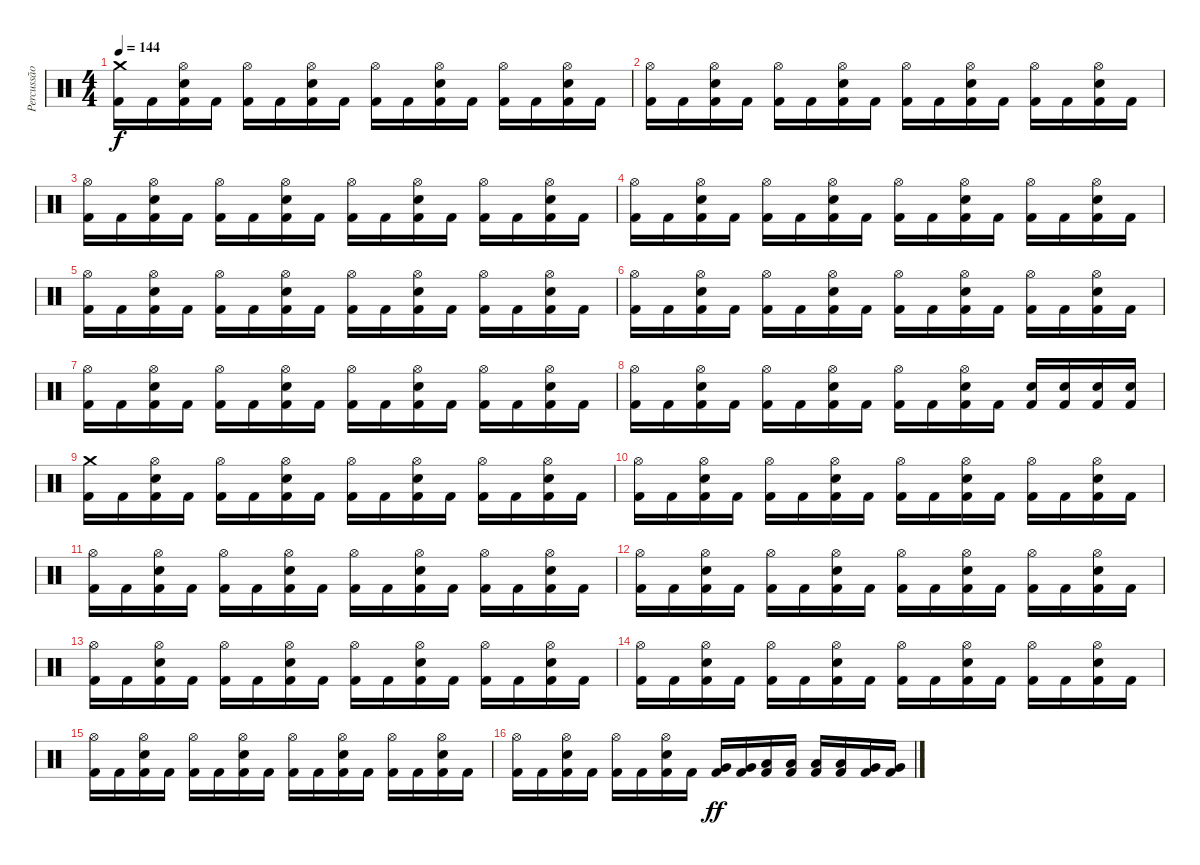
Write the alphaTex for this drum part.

\track ("Percussão" "Percussão") {instrument percussion}
\staff {score}
\articulation defaults
\ts (4 4)
\tempo 144
\clef neutral
\ks c
("Crash medium (hit)" "Kick (hit) 2").16{dy f} "Kick (hit) 2".16 ("Hi-Hat (open)" "Electric Snare (hit)" "Kick (hit) 2").16 "Kick (hit) 2".16 ("Hi-Hat (open)" "Kick (hit) 2").16 "Kick (hit) 2".16 ("Hi-Hat (open)" "Electric Snare (hit)" "Kick (hit) 2").16 "Kick (hit) 2".16 ("Hi-Hat (open)" "Kick (hit) 2").16 "Kick (hit) 2".16 ("Hi-Hat (open)" "Electric Snare (hit)" "Kick (hit) 2").16 "Kick (hit) 2".16 ("Hi-Hat (open)" "Kick (hit) 2").16 "Kick (hit) 2".16 ("Hi-Hat (open)" "Electric Snare (hit)" "Kick (hit) 2").16 "Kick (hit) 2".16 |
("Hi-Hat (open)" "Kick (hit) 2").16 "Kick (hit) 2".16 ("Hi-Hat (open)" "Electric Snare (hit)" "Kick (hit) 2").16 "Kick (hit) 2".16 ("Hi-Hat (open)" "Kick (hit) 2").16 "Kick (hit) 2".16 ("Hi-Hat (open)" "Electric Snare (hit)" "Kick (hit) 2").16 "Kick (hit) 2".16 ("Hi-Hat (open)" "Kick (hit) 2").16 "Kick (hit) 2".16 ("Hi-Hat (open)" "Electric Snare (hit)" "Kick (hit) 2").16 "Kick (hit) 2".16 ("Hi-Hat (open)" "Kick (hit) 2").16 "Kick (hit) 2".16 ("Hi-Hat (open)" "Electric Snare (hit)" "Kick (hit) 2").16 "Kick (hit) 2".16 |
("Hi-Hat (open)" "Kick (hit) 2").16 "Kick (hit) 2".16 ("Hi-Hat (open)" "Electric Snare (hit)" "Kick (hit) 2").16 "Kick (hit) 2".16 ("Hi-Hat (open)" "Kick (hit) 2").16 "Kick (hit) 2".16 ("Hi-Hat (open)" "Electric Snare (hit)" "Kick (hit) 2").16 "Kick (hit) 2".16 ("Hi-Hat (open)" "Kick (hit) 2").16 "Kick (hit) 2".16 ("Hi-Hat (open)" "Electric Snare (hit)" "Kick (hit) 2").16 "Kick (hit) 2".16 ("Hi-Hat (open)" "Kick (hit) 2").16 "Kick (hit) 2".16 ("Hi-Hat (open)" "Electric Snare (hit)" "Kick (hit) 2").16 "Kick (hit) 2".16 |
("Hi-Hat (open)" "Kick (hit) 2").16 "Kick (hit) 2".16 ("Hi-Hat (open)" "Electric Snare (hit)" "Kick (hit) 2").16 "Kick (hit) 2".16 ("Hi-Hat (open)" "Kick (hit) 2").16 "Kick (hit) 2".16 ("Hi-Hat (open)" "Electric Snare (hit)" "Kick (hit) 2").16 "Kick (hit) 2".16 ("Hi-Hat (open)" "Kick (hit) 2").16 "Kick (hit) 2".16 ("Hi-Hat (open)" "Electric Snare (hit)" "Kick (hit) 2").16 "Kick (hit) 2".16 ("Hi-Hat (open)" "Kick (hit) 2").16 "Kick (hit) 2".16 ("Hi-Hat (open)" "Electric Snare (hit)" "Kick (hit) 2").16 "Kick (hit) 2".16 |
("Hi-Hat (open)" "Kick (hit) 2").16 "Kick (hit) 2".16 ("Hi-Hat (open)" "Electric Snare (hit)" "Kick (hit) 2").16 "Kick (hit) 2".16 ("Hi-Hat (open)" "Kick (hit) 2").16 "Kick (hit) 2".16 ("Hi-Hat (open)" "Electric Snare (hit)" "Kick (hit) 2").16 "Kick (hit) 2".16 ("Hi-Hat (open)" "Kick (hit) 2").16 "Kick (hit) 2".16 ("Hi-Hat (open)" "Electric Snare (hit)" "Kick (hit) 2").16 "Kick (hit) 2".16 ("Hi-Hat (open)" "Kick (hit) 2").16 "Kick (hit) 2".16 ("Hi-Hat (open)" "Electric Snare (hit)" "Kick (hit) 2").16 "Kick (hit) 2".16 |
("Hi-Hat (open)" "Kick (hit) 2").16 "Kick (hit) 2".16 ("Hi-Hat (open)" "Electric Snare (hit)" "Kick (hit) 2").16 "Kick (hit) 2".16 ("Hi-Hat (open)" "Kick (hit) 2").16 "Kick (hit) 2".16 ("Hi-Hat (open)" "Electric Snare (hit)" "Kick (hit) 2").16 "Kick (hit) 2".16 ("Hi-Hat (open)" "Kick (hit) 2").16 "Kick (hit) 2".16 ("Hi-Hat (open)" "Electric Snare (hit)" "Kick (hit) 2").16 "Kick (hit) 2".16 ("Hi-Hat (open)" "Kick (hit) 2").16 "Kick (hit) 2".16 ("Hi-Hat (open)" "Electric Snare (hit)" "Kick (hit) 2").16 "Kick (hit) 2".16 |
("Hi-Hat (open)" "Kick (hit) 2").16 "Kick (hit) 2".16 ("Hi-Hat (open)" "Electric Snare (hit)" "Kick (hit) 2").16 "Kick (hit) 2".16 ("Hi-Hat (open)" "Kick (hit) 2").16 "Kick (hit) 2".16 ("Hi-Hat (open)" "Electric Snare (hit)" "Kick (hit) 2").16 "Kick (hit) 2".16 ("Hi-Hat (open)" "Kick (hit) 2").16 "Kick (hit) 2".16 ("Hi-Hat (open)" "Electric Snare (hit)" "Kick (hit) 2").16 "Kick (hit) 2".16 ("Hi-Hat (open)" "Kick (hit) 2").16 "Kick (hit) 2".16 ("Hi-Hat (open)" "Electric Snare (hit)" "Kick (hit) 2").16 "Kick (hit) 2".16 |
("Hi-Hat (open)" "Kick (hit) 2").16 "Kick (hit) 2".16 ("Hi-Hat (open)" "Electric Snare (hit)" "Kick (hit) 2").16 "Kick (hit) 2".16 ("Hi-Hat (open)" "Kick (hit) 2").16 "Kick (hit) 2".16 ("Hi-Hat (open)" "Electric Snare (hit)" "Kick (hit) 2").16 "Kick (hit) 2".16 ("Hi-Hat (open)" "Kick (hit) 2").16 "Kick (hit) 2".16 ("Hi-Hat (open)" "Electric Snare (hit)" "Kick (hit) 2").16 "Kick (hit) 2".16 ("Electric Snare (hit)" "Kick (hit) 2").16 ("Electric Snare (hit)" "Kick (hit) 2").16 ("Electric Snare (hit)" "Kick (hit) 2").16 ("Electric Snare (hit)" "Kick (hit) 2").16 |
("Crash medium (hit)" "Kick (hit) 2").16 "Kick (hit) 2".16 ("Hi-Hat (open)" "Electric Snare (hit)" "Kick (hit) 2").16 "Kick (hit) 2".16 ("Hi-Hat (open)" "Kick (hit) 2").16 "Kick (hit) 2".16 ("Hi-Hat (open)" "Electric Snare (hit)" "Kick (hit) 2").16 "Kick (hit) 2".16 ("Hi-Hat (open)" "Kick (hit) 2").16 "Kick (hit) 2".16 ("Hi-Hat (open)" "Electric Snare (hit)" "Kick (hit) 2").16 "Kick (hit) 2".16 ("Hi-Hat (open)" "Kick (hit) 2").16 "Kick (hit) 2".16 ("Hi-Hat (open)" "Electric Snare (hit)" "Kick (hit) 2").16 "Kick (hit) 2".16 |
("Hi-Hat (open)" "Kick (hit) 2").16 "Kick (hit) 2".16 ("Hi-Hat (open)" "Electric Snare (hit)" "Kick (hit) 2").16 "Kick (hit) 2".16 ("Hi-Hat (open)" "Kick (hit) 2").16 "Kick (hit) 2".16 ("Hi-Hat (open)" "Electric Snare (hit)" "Kick (hit) 2").16 "Kick (hit) 2".16 ("Hi-Hat (open)" "Kick (hit) 2").16 "Kick (hit) 2".16 ("Hi-Hat (open)" "Electric Snare (hit)" "Kick (hit) 2").16 "Kick (hit) 2".16 ("Hi-Hat (open)" "Kick (hit) 2").16 "Kick (hit) 2".16 ("Hi-Hat (open)" "Electric Snare (hit)" "Kick (hit) 2").16 "Kick (hit) 2".16 |
("Hi-Hat (open)" "Kick (hit) 2").16 "Kick (hit) 2".16 ("Hi-Hat (open)" "Electric Snare (hit)" "Kick (hit) 2").16 "Kick (hit) 2".16 ("Hi-Hat (open)" "Kick (hit) 2").16 "Kick (hit) 2".16 ("Hi-Hat (open)" "Electric Snare (hit)" "Kick (hit) 2").16 "Kick (hit) 2".16 ("Hi-Hat (open)" "Kick (hit) 2").16 "Kick (hit) 2".16 ("Hi-Hat (open)" "Electric Snare (hit)" "Kick (hit) 2").16 "Kick (hit) 2".16 ("Hi-Hat (open)" "Kick (hit) 2").16 "Kick (hit) 2".16 ("Hi-Hat (open)" "Electric Snare (hit)" "Kick (hit) 2").16 "Kick (hit) 2".16 |
("Hi-Hat (open)" "Kick (hit) 2").16 "Kick (hit) 2".16 ("Hi-Hat (open)" "Electric Snare (hit)" "Kick (hit) 2").16 "Kick (hit) 2".16 ("Hi-Hat (open)" "Kick (hit) 2").16 "Kick (hit) 2".16 ("Hi-Hat (open)" "Electric Snare (hit)" "Kick (hit) 2").16 "Kick (hit) 2".16 ("Hi-Hat (open)" "Kick (hit) 2").16 "Kick (hit) 2".16 ("Hi-Hat (open)" "Electric Snare (hit)" "Kick (hit) 2").16 "Kick (hit) 2".16 ("Hi-Hat (open)" "Kick (hit) 2").16 "Kick (hit) 2".16 ("Hi-Hat (open)" "Electric Snare (hit)" "Kick (hit) 2").16 "Kick (hit) 2".16 |
("Hi-Hat (open)" "Kick (hit) 2").16 "Kick (hit) 2".16 ("Hi-Hat (open)" "Electric Snare (hit)" "Kick (hit) 2").16 "Kick (hit) 2".16 ("Hi-Hat (open)" "Kick (hit) 2").16 "Kick (hit) 2".16 ("Hi-Hat (open)" "Electric Snare (hit)" "Kick (hit) 2").16 "Kick (hit) 2".16 ("Hi-Hat (open)" "Kick (hit) 2").16 "Kick (hit) 2".16 ("Hi-Hat (open)" "Electric Snare (hit)" "Kick (hit) 2").16 "Kick (hit) 2".16 ("Hi-Hat (open)" "Kick (hit) 2").16 "Kick (hit) 2".16 ("Hi-Hat (open)" "Electric Snare (hit)" "Kick (hit) 2").16 "Kick (hit) 2".16 |
("Hi-Hat (open)" "Kick (hit) 2").16 "Kick (hit) 2".16 ("Hi-Hat (open)" "Electric Snare (hit)" "Kick (hit) 2").16 "Kick (hit) 2".16 ("Hi-Hat (open)" "Kick (hit) 2").16 "Kick (hit) 2".16 ("Hi-Hat (open)" "Electric Snare (hit)" "Kick (hit) 2").16 "Kick (hit) 2".16 ("Hi-Hat (open)" "Kick (hit) 2").16 "Kick (hit) 2".16 ("Hi-Hat (open)" "Electric Snare (hit)" "Kick (hit) 2").16 "Kick (hit) 2".16 ("Hi-Hat (open)" "Kick (hit) 2").16 "Kick (hit) 2".16 ("Hi-Hat (open)" "Electric Snare (hit)" "Kick (hit) 2").16 "Kick (hit) 2".16 |
("Hi-Hat (open)" "Kick (hit) 2").16 "Kick (hit) 2".16 ("Hi-Hat (open)" "Electric Snare (hit)" "Kick (hit) 2").16 "Kick (hit) 2".16 ("Hi-Hat (open)" "Kick (hit) 2").16 "Kick (hit) 2".16 ("Hi-Hat (open)" "Electric Snare (hit)" "Kick (hit) 2").16 "Kick (hit) 2".16 ("Hi-Hat (open)" "Kick (hit) 2").16 "Kick (hit) 2".16 ("Hi-Hat (open)" "Electric Snare (hit)" "Kick (hit) 2").16 "Kick (hit) 2".16 ("Hi-Hat (open)" "Kick (hit) 2").16 "Kick (hit) 2".16 ("Hi-Hat (open)" "Electric Snare (hit)" "Kick (hit) 2").16 "Kick (hit) 2".16 |
("Hi-Hat (open)" "Kick (hit) 2").16 "Kick (hit) 2".16 ("Hi-Hat (open)" "Electric Snare (hit)" "Kick (hit) 2").16 "Kick (hit) 2".16 ("Hi-Hat (open)" "Kick (hit) 2").16 "Kick (hit) 2".16 ("Hi-Hat (open)" "Electric Snare (hit)" "Kick (hit) 2").16 "Kick (hit) 2".16 ("Very Low Tom (hit)" "Kick (hit) 2").16{dy ff} ("Very Low Tom (hit)" "Kick (hit) 2").16 ("Low Floor Tom (hit)" "Kick (hit) 2").16 ("Low Floor Tom (hit)" "Kick (hit) 2").16 ("Low Tom (hit)" "Kick (hit) 2").16 ("Low Tom (hit)" "Kick (hit) 2").16 ("Very Low Tom (hit)" "Kick (hit) 2").16 ("Very Low Tom (hit)" "Kick (hit) 2").16
